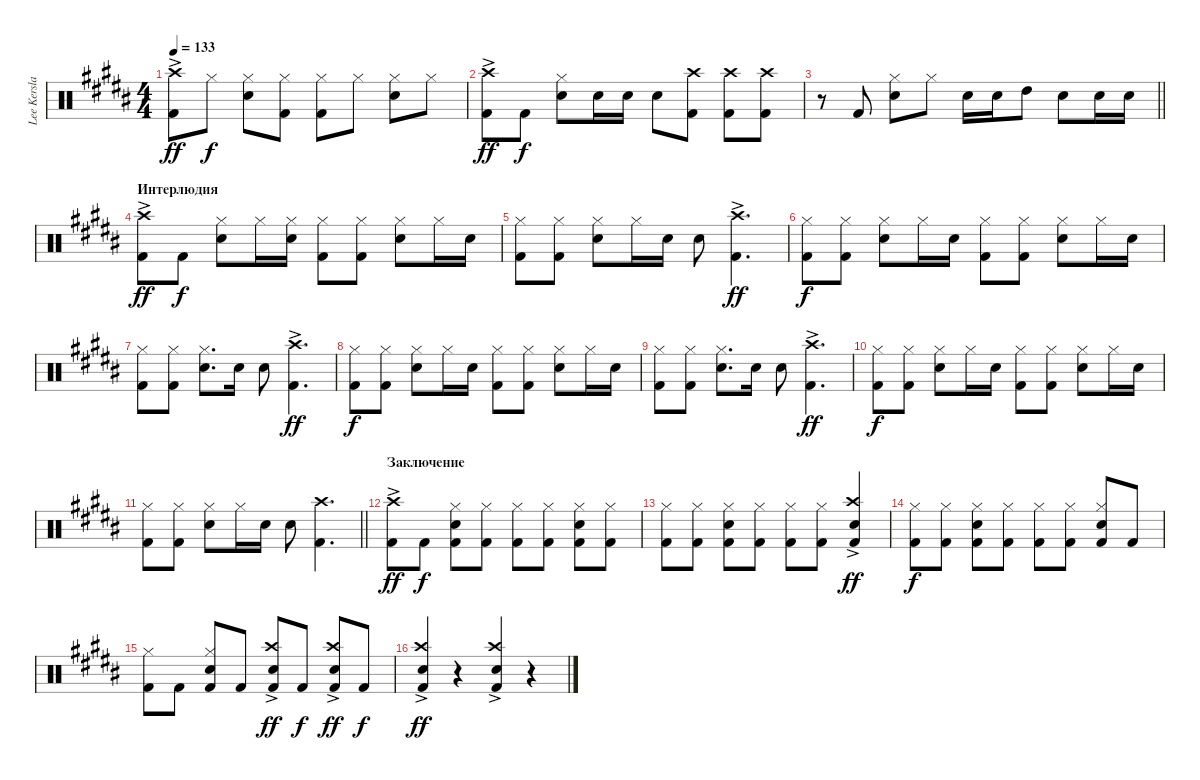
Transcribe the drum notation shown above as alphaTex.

\track ("Lee Kerslake" "Lee Kersla") {instrument percussion}
\staff {score}
\articulation defaults
\ts (4 4)
\tempo 133
\clef neutral
\ks b
("Kick (hit) 2" "Crash high (hit)"{ac}).8{dy ff} "Hi-Hat (closed)".8{dy f} ("Snare (hit) 2" "Hi-Hat (closed)").8 ("Hi-Hat (closed)" "Kick (hit) 2").8 ("Hi-Hat (closed)" "Kick (hit) 2").8 "Hi-Hat (closed)".8 ("Snare (hit) 2" "Hi-Hat (closed)").8 "Hi-Hat (closed)".8 |
("Kick (hit) 2" "Crash high (hit)"{ac}).8{dy ff} "Kick (hit) 2".8{dy f} ("Snare (hit) 2" "Hi-Hat (closed)").8 "Snare (hit) 2".16 "Snare (hit) 2".16 "Snare (hit) 2".8 ("Kick (hit) 2" "Crash high (hit)").8 ("Kick (hit) 2" "Crash high (hit)").8 ("Kick (hit) 2" "Crash high (hit)").8 |
\barLineRight lightlight
r.8 "Kick (hit) 2".8 ("Snare (hit) 2" "Hi-Hat (closed)").8 "Hi-Hat (closed)".8 "Snare (hit) 2".16 "Snare (hit) 2".16 "High Tom (hit)".8 "Snare (hit) 2".8 "Snare (hit) 2".16 "Snare (hit) 2".16 |
\section ("" "Интерлюдия")
("Kick (hit) 2" "Crash high (hit)"{ac}).8{dy ff} "Kick (hit) 2".8{dy f} ("Snare (hit) 2" "Hi-Hat (closed)").8 "Hi-Hat (closed)".16 ("Hi-Hat (closed)" "Snare (hit) 2").16 ("Kick (hit) 2" "Hi-Hat (closed)").8 ("Kick (hit) 2" "Hi-Hat (closed)").8 ("Snare (hit) 2" "Hi-Hat (closed)").8 "Hi-Hat (closed)".16 "Snare (hit) 2".16 |
("Kick (hit) 2" "Hi-Hat (closed)").8 ("Kick (hit) 2" "Hi-Hat (closed)").8 ("Snare (hit) 2" "Hi-Hat (closed)").8 "Hi-Hat (closed)".16 "Snare (hit) 2".16 "Snare (hit) 2".8 ("Kick (hit) 2" "Crash high (hit)"{ac}).4{d dy ff} |
("Kick (hit) 2" "Hi-Hat (closed)").8{dy f} ("Kick (hit) 2" "Hi-Hat (closed)").8 ("Snare (hit) 2" "Hi-Hat (closed)").8 "Hi-Hat (closed)".16 "Snare (hit) 2".16 ("Kick (hit) 2" "Hi-Hat (closed)").8 ("Kick (hit) 2" "Hi-Hat (closed)").8 ("Snare (hit) 2" "Hi-Hat (closed)").8 "Hi-Hat (closed)".16 "Snare (hit) 2".16 |
("Kick (hit) 2" "Hi-Hat (closed)").8 ("Kick (hit) 2" "Hi-Hat (closed)").8 ("Snare (hit) 2" "Hi-Hat (closed)").8{d} "Snare (hit) 2".16 "Snare (hit) 2".8 ("Kick (hit) 2" "Crash high (hit)"{ac}).4{d dy ff} |
("Kick (hit) 2" "Hi-Hat (closed)").8{dy f} ("Kick (hit) 2" "Hi-Hat (closed)").8 ("Snare (hit) 2" "Hi-Hat (closed)").8 "Hi-Hat (closed)".16 "Snare (hit) 2".16 ("Kick (hit) 2" "Hi-Hat (closed)").8 ("Kick (hit) 2" "Hi-Hat (closed)").8 ("Snare (hit) 2" "Hi-Hat (closed)").8 "Hi-Hat (closed)".16 "Snare (hit) 2".16 |
("Kick (hit) 2" "Hi-Hat (closed)").8 ("Kick (hit) 2" "Hi-Hat (closed)").8 ("Snare (hit) 2" "Hi-Hat (closed)").8{d} "Snare (hit) 2".16 "Snare (hit) 2".8 ("Kick (hit) 2" "Crash high (hit)"{ac}).4{d dy ff} |
("Kick (hit) 2" "Hi-Hat (closed)").8{dy f} ("Kick (hit) 2" "Hi-Hat (closed)").8 ("Snare (hit) 2" "Hi-Hat (closed)").8 "Hi-Hat (closed)".16 "Snare (hit) 2".16 ("Kick (hit) 2" "Hi-Hat (closed)").8 ("Kick (hit) 2" "Hi-Hat (closed)").8 ("Snare (hit) 2" "Hi-Hat (closed)").8 "Hi-Hat (closed)".16 "Snare (hit) 2".16 |
\barLineRight lightlight
("Kick (hit) 2" "Hi-Hat (closed)").8 ("Kick (hit) 2" "Hi-Hat (closed)").8 ("Snare (hit) 2" "Hi-Hat (closed)").8 "Hi-Hat (closed)".16 "Snare (hit) 2".16 "Snare (hit) 2".8 ("Kick (hit) 2" "Crash high (hit)").4{d} |
\section ("" "Заключение")
("Kick (hit) 2" "Crash high (hit)"{ac}).8{dy ff} "Kick (hit) 2".8{dy f} ("Snare (hit) 2" "Hi-Hat (closed)" "Kick (hit) 2").8 ("Hi-Hat (closed)" "Kick (hit) 2").8 ("Kick (hit) 2" "Hi-Hat (closed)").8 ("Kick (hit) 2" "Hi-Hat (closed)").8 ("Snare (hit) 2" "Hi-Hat (closed)" "Kick (hit) 2").8 ("Hi-Hat (closed)" "Kick (hit) 2").8 |
("Kick (hit) 2" "Hi-Hat (closed)").8 ("Kick (hit) 2" "Hi-Hat (closed)").8 ("Snare (hit) 2" "Hi-Hat (closed)" "Kick (hit) 2").8 ("Hi-Hat (closed)" "Kick (hit) 2").8 ("Kick (hit) 2" "Hi-Hat (closed)").8 ("Kick (hit) 2" "Hi-Hat (closed)").8 ("Kick (hit) 2" "Crash high (hit)"{ac} "Snare (hit) 2").4{dy ff} |
("Kick (hit) 2" "Hi-Hat (closed)").8{dy f} ("Kick (hit) 2" "Hi-Hat (closed)").8 ("Snare (hit) 2" "Hi-Hat (closed)" "Kick (hit) 2").8 ("Hi-Hat (closed)" "Kick (hit) 2").8 ("Kick (hit) 2" "Hi-Hat (closed)").8 ("Kick (hit) 2" "Hi-Hat (closed)").8 ("Snare (hit) 2" "Hi-Hat (closed)" "Kick (hit) 2").8 "Kick (hit) 2".8 |
("Kick (hit) 2" "Hi-Hat (closed)").8 "Kick (hit) 2".8 ("Snare (hit) 2" "Hi-Hat (closed)" "Kick (hit) 2").8 "Kick (hit) 2".8 ("Kick (hit) 2" "Snare (hit) 2" "Crash high (hit)"{ac}).8{dy ff} "Kick (hit) 2".8{dy f} ("Kick (hit) 2" "Snare (hit) 2" "Crash high (hit)"{ac}).8{dy ff} "Kick (hit) 2".8{dy f} |
("Kick (hit) 2" "Snare (hit) 2" "Crash high (hit)"{ac}).4{dy ff} r.4 ("Kick (hit) 2" "Snare (hit) 2" "Crash high (hit)"{ac}).4 r.4
